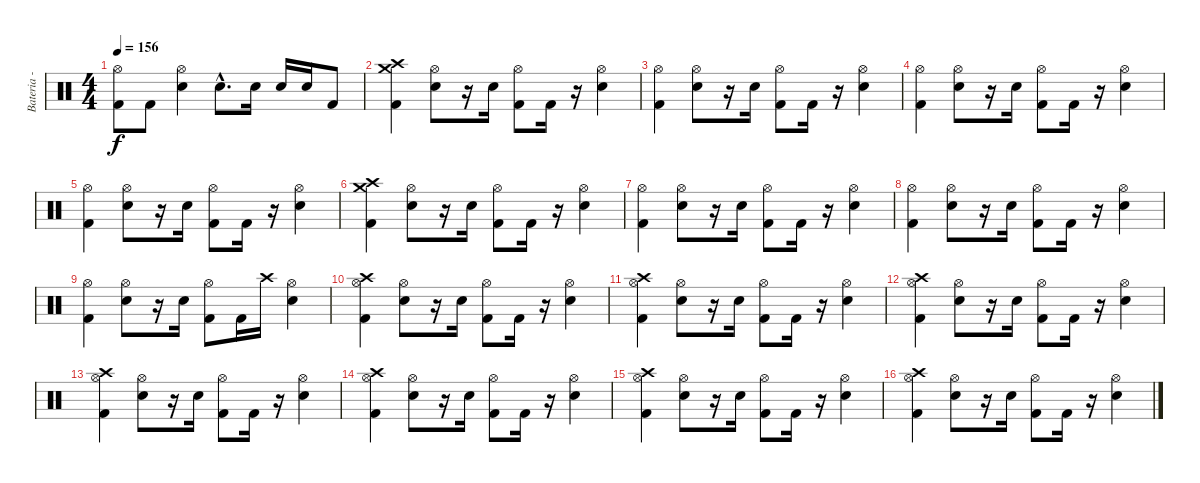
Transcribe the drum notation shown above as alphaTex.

\track ("Bateria - Kalú" "Bateria - ") {instrument percussion}
\staff {score}
\articulation defaults
\ts (4 4)
\tempo 156
\clef neutral
\ks c
("Hi-Hat (open)" "Kick (hit) 2").8{dy f} "Kick (hit) 2".8 ("Hi-Hat (open)" "Electric Snare (hit)").4 "Electric Snare (hit)"{hac}.8{d} "Electric Snare (hit)".16 "Electric Snare (hit)".16 "Electric Snare (hit)".16 "Kick (hit) 2".8 |
("Crash high (hit)" "Crash medium (hit)" "Kick (hit) 2").4 ("Hi-Hat (open)" "Electric Snare (hit)").8 r.16 "Electric Snare (hit)".16 ("Hi-Hat (open)" "Kick (hit) 2").8 "Kick (hit) 2".16 r.16 ("Hi-Hat (open)" "Electric Snare (hit)").4 |
("Hi-Hat (open)" "Kick (hit) 2").4 ("Hi-Hat (open)" "Electric Snare (hit)").8 r.16 "Electric Snare (hit)".16 ("Hi-Hat (open)" "Kick (hit) 2").8 "Kick (hit) 2".16 r.16 ("Hi-Hat (open)" "Electric Snare (hit)").4 |
("Hi-Hat (open)" "Kick (hit) 2").4 ("Hi-Hat (open)" "Electric Snare (hit)").8 r.16 "Electric Snare (hit)".16 ("Hi-Hat (open)" "Kick (hit) 2").8 "Kick (hit) 2".16 r.16 ("Hi-Hat (open)" "Electric Snare (hit)").4 |
("Hi-Hat (open)" "Kick (hit) 2").4 ("Hi-Hat (open)" "Electric Snare (hit)").8 r.16 "Electric Snare (hit)".16 ("Hi-Hat (open)" "Kick (hit) 2").8 "Kick (hit) 2".16 r.16 ("Hi-Hat (open)" "Electric Snare (hit)").4 |
("Crash high (hit)" "Crash medium (hit)" "Kick (hit) 2").4 ("Hi-Hat (open)" "Electric Snare (hit)").8 r.16 "Electric Snare (hit)".16 ("Hi-Hat (open)" "Kick (hit) 2").8 "Kick (hit) 2".16 r.16 ("Hi-Hat (open)" "Electric Snare (hit)").4 |
("Hi-Hat (open)" "Kick (hit) 2").4 ("Hi-Hat (open)" "Electric Snare (hit)").8 r.16 "Electric Snare (hit)".16 ("Hi-Hat (open)" "Kick (hit) 2").8 "Kick (hit) 2".16 r.16 ("Hi-Hat (open)" "Electric Snare (hit)").4 |
("Hi-Hat (open)" "Kick (hit) 2").4 ("Hi-Hat (open)" "Electric Snare (hit)").8 r.16 "Electric Snare (hit)".16 ("Hi-Hat (open)" "Kick (hit) 2").8 "Kick (hit) 2".16 r.16 ("Hi-Hat (open)" "Electric Snare (hit)").4 |
("Hi-Hat (open)" "Kick (hit) 2").4 ("Hi-Hat (open)" "Electric Snare (hit)").8 r.16 "Electric Snare (hit)".16 ("Hi-Hat (open)" "Kick (hit) 2").8 "Kick (hit) 2".16 "Crash high (hit)".16 ("Hi-Hat (open)" "Electric Snare (hit)").4 |
("Crash high (hit)" "Hi-Hat (open)" "Kick (hit) 2").4 ("Hi-Hat (open)" "Electric Snare (hit)").8 r.16 "Electric Snare (hit)".16 ("Hi-Hat (open)" "Kick (hit) 2").8 "Kick (hit) 2".16 r.16 ("Hi-Hat (open)" "Electric Snare (hit)").4 |
("Crash high (hit)" "Hi-Hat (open)" "Kick (hit) 2").4 ("Hi-Hat (open)" "Electric Snare (hit)").8 r.16 "Electric Snare (hit)".16 ("Hi-Hat (open)" "Kick (hit) 2").8 "Kick (hit) 2".16 r.16 ("Hi-Hat (open)" "Electric Snare (hit)").4 |
("Crash high (hit)" "Hi-Hat (open)" "Kick (hit) 2").4 ("Hi-Hat (open)" "Electric Snare (hit)").8 r.16 "Electric Snare (hit)".16 ("Hi-Hat (open)" "Kick (hit) 2").8 "Kick (hit) 2".16 r.16 ("Hi-Hat (open)" "Electric Snare (hit)").4 |
("Crash high (hit)" "Hi-Hat (open)" "Kick (hit) 2").4 ("Hi-Hat (open)" "Electric Snare (hit)").8 r.16 "Electric Snare (hit)".16 ("Hi-Hat (open)" "Kick (hit) 2").8 "Kick (hit) 2".16 r.16 ("Hi-Hat (open)" "Electric Snare (hit)").4 |
("Crash high (hit)" "Hi-Hat (open)" "Kick (hit) 2").4 ("Hi-Hat (open)" "Electric Snare (hit)").8 r.16 "Electric Snare (hit)".16 ("Hi-Hat (open)" "Kick (hit) 2").8 "Kick (hit) 2".16 r.16 ("Hi-Hat (open)" "Electric Snare (hit)").4 |
("Crash high (hit)" "Hi-Hat (open)" "Kick (hit) 2").4 ("Hi-Hat (open)" "Electric Snare (hit)").8 r.16 "Electric Snare (hit)".16 ("Hi-Hat (open)" "Kick (hit) 2").8 "Kick (hit) 2".16 r.16 ("Hi-Hat (open)" "Electric Snare (hit)").4 |
("Crash high (hit)" "Hi-Hat (open)" "Kick (hit) 2").4 ("Hi-Hat (open)" "Electric Snare (hit)").8 r.16 "Electric Snare (hit)".16 ("Hi-Hat (open)" "Kick (hit) 2").8 "Kick (hit) 2".16 r.16 ("Hi-Hat (open)" "Electric Snare (hit)").4
